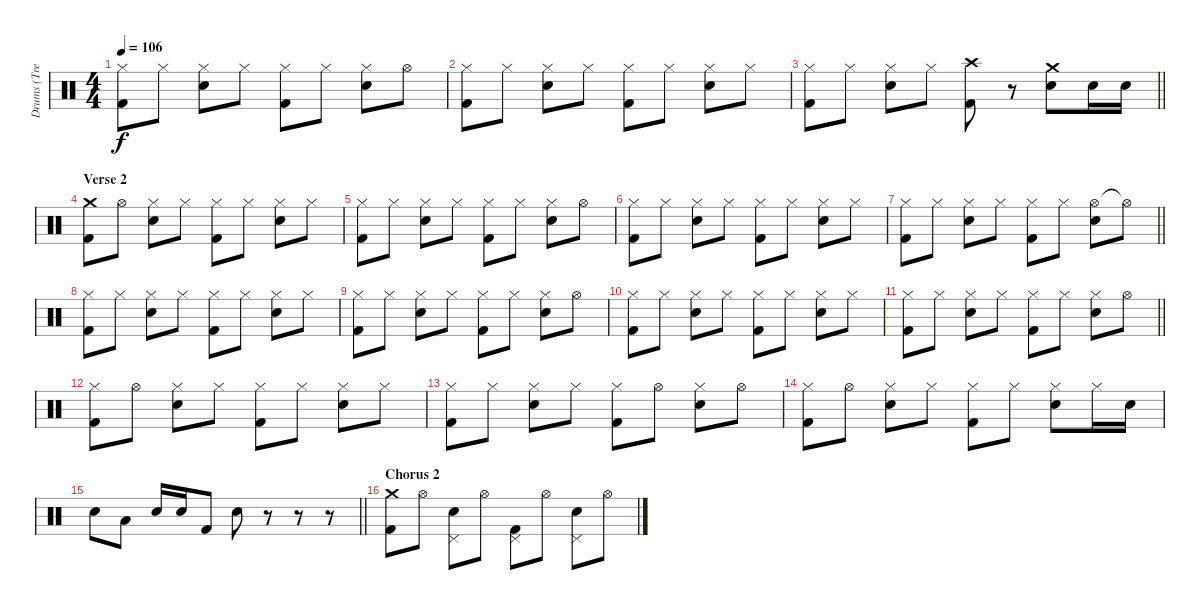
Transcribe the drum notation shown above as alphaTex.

\track ("Drums (Tre Cool)" "Drums (Tre") {instrument percussion}
\staff {score}
\articulation defaults
\ts (4 4)
\tempo 106
\clef neutral
\ks c
("Hi-Hat (closed)" "Kick (hit) 2").8{dy f} "Hi-Hat (closed)".8 ("Hi-Hat (closed)" "Electric Snare (hit)").8 "Hi-Hat (closed)".8 ("Hi-Hat (closed)" "Kick (hit) 2").8 "Hi-Hat (closed)".8 ("Hi-Hat (closed)" "Electric Snare (hit)").8 "Hi-Hat (open)".8 |
("Hi-Hat (closed)" "Kick (hit) 2").8 "Hi-Hat (closed)".8 ("Hi-Hat (closed)" "Electric Snare (hit)").8 "Hi-Hat (closed)".8 ("Hi-Hat (closed)" "Kick (hit) 2").8 "Hi-Hat (closed)".8 ("Hi-Hat (closed)" "Electric Snare (hit)").8 "Hi-Hat (closed)".8 |
\barLineRight lightlight
("Hi-Hat (closed)" "Kick (hit) 2").8 "Hi-Hat (closed)".8 ("Hi-Hat (closed)" "Electric Snare (hit)").8 "Hi-Hat (closed)".8 ("Crash high (hit)" "Kick (hit) 2").8 r.8 ("Crash medium (hit)" "Electric Snare (hit)").8 "Electric Snare (hit)".16 "Electric Snare (hit)".16 |
\section ("" "Verse 2")
("Crash medium (hit)" "Kick (hit) 2").8 "Hi-Hat (open)".8 ("Hi-Hat (closed)" "Electric Snare (hit)").8 "Hi-Hat (closed)".8 ("Hi-Hat (closed)" "Kick (hit) 2").8 "Hi-Hat (closed)".8 ("Hi-Hat (closed)" "Electric Snare (hit)").8 "Hi-Hat (closed)".8 |
("Hi-Hat (closed)" "Kick (hit) 2").8 "Hi-Hat (closed)".8 ("Hi-Hat (closed)" "Electric Snare (hit)").8 "Hi-Hat (closed)".8 ("Hi-Hat (closed)" "Kick (hit) 2").8 "Hi-Hat (closed)".8 ("Hi-Hat (closed)" "Electric Snare (hit)").8 "Hi-Hat (open)".8 |
("Hi-Hat (closed)" "Kick (hit) 2").8 "Hi-Hat (closed)".8 ("Hi-Hat (closed)" "Electric Snare (hit)").8 "Hi-Hat (closed)".8 ("Hi-Hat (closed)" "Kick (hit) 2").8 "Hi-Hat (closed)".8 ("Hi-Hat (closed)" "Electric Snare (hit)").8 "Hi-Hat (closed)".8 |
\barLineRight lightlight
("Hi-Hat (closed)" "Kick (hit) 2").8 "Hi-Hat (closed)".8 ("Hi-Hat (closed)" "Electric Snare (hit)").8 "Hi-Hat (closed)".8 ("Hi-Hat (closed)" "Kick (hit) 2").8 "Hi-Hat (closed)".8 ("Hi-Hat (open)" "Electric Snare (hit)").8 "Hi-Hat (open)"{t}.8 |
("Hi-Hat (closed)" "Kick (hit) 2").8 "Hi-Hat (closed)".8 ("Hi-Hat (closed)" "Electric Snare (hit)").8 "Hi-Hat (closed)".8 ("Hi-Hat (closed)" "Kick (hit) 2").8 "Hi-Hat (closed)".8 ("Hi-Hat (closed)" "Electric Snare (hit)").8 "Hi-Hat (closed)".8 |
("Hi-Hat (closed)" "Kick (hit) 2").8 "Hi-Hat (closed)".8 ("Hi-Hat (closed)" "Electric Snare (hit)").8 "Hi-Hat (closed)".8 ("Hi-Hat (closed)" "Kick (hit) 2").8 "Hi-Hat (closed)".8 ("Hi-Hat (closed)" "Electric Snare (hit)").8 "Hi-Hat (open)".8 |
("Hi-Hat (closed)" "Kick (hit) 2").8 "Hi-Hat (closed)".8 ("Hi-Hat (closed)" "Electric Snare (hit)").8 "Hi-Hat (closed)".8 ("Hi-Hat (closed)" "Kick (hit) 2").8 "Hi-Hat (closed)".8 ("Hi-Hat (closed)" "Electric Snare (hit)").8 "Hi-Hat (closed)".8 |
\barLineRight lightlight
("Hi-Hat (closed)" "Kick (hit) 2").8 "Hi-Hat (closed)".8 ("Hi-Hat (closed)" "Electric Snare (hit)").8 "Hi-Hat (closed)".8 ("Hi-Hat (closed)" "Kick (hit) 2").8 "Hi-Hat (closed)".8 ("Hi-Hat (closed)" "Electric Snare (hit)").8 "Hi-Hat (open)".8 |
("Hi-Hat (closed)" "Kick (hit) 2").8 "Hi-Hat (open)".8 ("Hi-Hat (closed)" "Electric Snare (hit)").8 "Hi-Hat (closed)".8 ("Hi-Hat (closed)" "Kick (hit) 2").8 "Hi-Hat (closed)".8 ("Hi-Hat (closed)" "Electric Snare (hit)").8 "Hi-Hat (closed)".8 |
("Hi-Hat (closed)" "Kick (hit) 2").8 "Hi-Hat (closed)".8 ("Hi-Hat (closed)" "Electric Snare (hit)").8 "Hi-Hat (closed)".8 ("Hi-Hat (closed)" "Kick (hit) 2").8 "Hi-Hat (open)".8 ("Hi-Hat (closed)" "Electric Snare (hit)").8 "Hi-Hat (open)".8 |
("Hi-Hat (closed)" "Kick (hit) 2").8 "Hi-Hat (open)".8 ("Hi-Hat (closed)" "Electric Snare (hit)").8 "Hi-Hat (closed)".8 ("Hi-Hat (closed)" "Kick (hit) 2").8 "Hi-Hat (closed)".8 ("Hi-Hat (closed)" "Electric Snare (hit)").8 "Hi-Hat (closed)".16 "Electric Snare (hit)".16 |
\barLineRight lightlight "Electric Snare (hit)".8 "Low Tom (hit)".8 "Electric Snare (hit)".16 "Electric Snare (hit)".16 "Kick (hit) 2".8 "Electric Snare (hit)".8
r.8 r.8 r.8 |
\section ("" "Chorus 2")
("Crash medium (hit)" "Kick (hit) 2").8 "Hi-Hat (open)".8 ("Pedal Hi-Hat (hit)" "Electric Snare (hit)").8 "Hi-Hat (open)".8 ("Pedal Hi-Hat (hit)" "Kick (hit) 2").8 "Hi-Hat (open)".8 ("Pedal Hi-Hat (hit)" "Electric Snare (hit)").8 "Hi-Hat (open)".8
